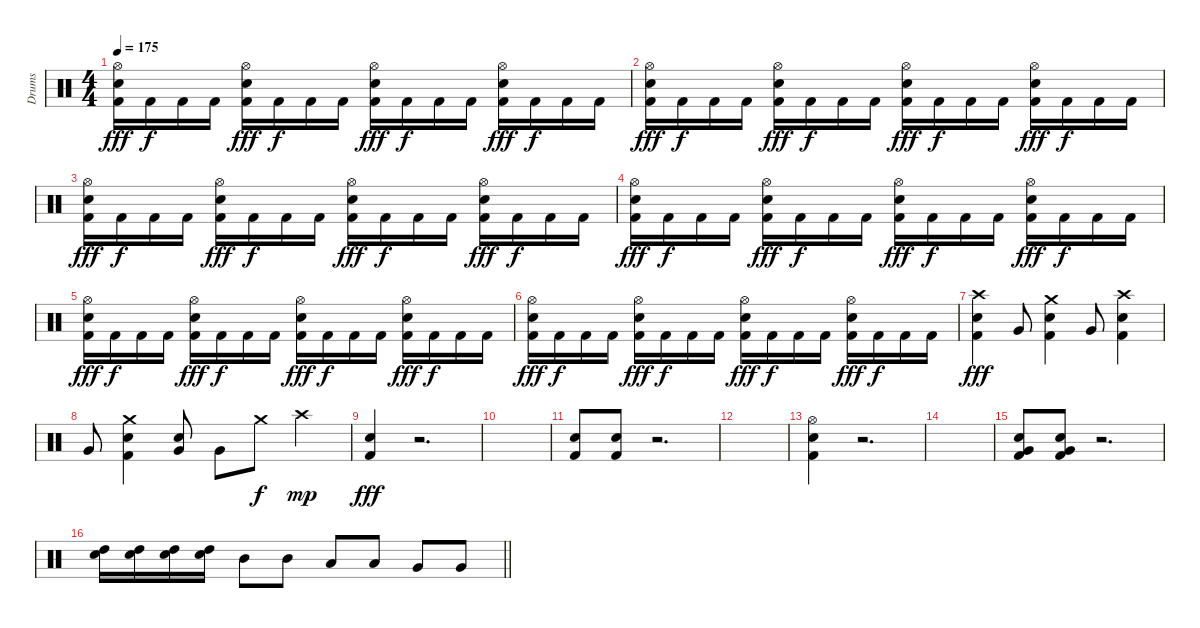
\track ("Drums" "Drums") {instrument percussion}
\staff {score}
\articulation defaults
\ts (4 4)
\tempo 175
\clef neutral
\ks c
("Hi-Hat (open)" "Electric Snare (hit)" "Kick (hit) 2").16{dy fff} "Kick (hit) 2".16{dy f} "Kick (hit) 2".16 "Kick (hit) 2".16 ("Hi-Hat (open)" "Electric Snare (hit)" "Kick (hit) 2").16{dy fff} "Kick (hit) 2".16{dy f} "Kick (hit) 2".16 "Kick (hit) 2".16 ("Hi-Hat (open)" "Electric Snare (hit)" "Kick (hit) 2").16{dy fff} "Kick (hit) 2".16{dy f} "Kick (hit) 2".16 "Kick (hit) 2".16 ("Hi-Hat (open)" "Electric Snare (hit)" "Kick (hit) 2").16{dy fff} "Kick (hit) 2".16{dy f} "Kick (hit) 2".16 "Kick (hit) 2".16 |
("Hi-Hat (open)" "Electric Snare (hit)" "Kick (hit) 2").16{dy fff} "Kick (hit) 2".16{dy f} "Kick (hit) 2".16 "Kick (hit) 2".16 ("Hi-Hat (open)" "Electric Snare (hit)" "Kick (hit) 2").16{dy fff} "Kick (hit) 2".16{dy f} "Kick (hit) 2".16 "Kick (hit) 2".16 ("Hi-Hat (open)" "Electric Snare (hit)" "Kick (hit) 2").16{dy fff} "Kick (hit) 2".16{dy f} "Kick (hit) 2".16 "Kick (hit) 2".16 ("Hi-Hat (open)" "Electric Snare (hit)" "Kick (hit) 2").16{dy fff} "Kick (hit) 2".16{dy f} "Kick (hit) 2".16 "Kick (hit) 2".16 |
("Hi-Hat (open)" "Electric Snare (hit)" "Kick (hit) 2").16{dy fff} "Kick (hit) 2".16{dy f} "Kick (hit) 2".16 "Kick (hit) 2".16 ("Hi-Hat (open)" "Electric Snare (hit)" "Kick (hit) 2").16{dy fff} "Kick (hit) 2".16{dy f} "Kick (hit) 2".16 "Kick (hit) 2".16 ("Hi-Hat (open)" "Electric Snare (hit)" "Kick (hit) 2").16{dy fff} "Kick (hit) 2".16{dy f} "Kick (hit) 2".16 "Kick (hit) 2".16 ("Hi-Hat (open)" "Electric Snare (hit)" "Kick (hit) 2").16{dy fff} "Kick (hit) 2".16{dy f} "Kick (hit) 2".16 "Kick (hit) 2".16 |
("Hi-Hat (open)" "Electric Snare (hit)" "Kick (hit) 2").16{dy fff} "Kick (hit) 2".16{dy f} "Kick (hit) 2".16 "Kick (hit) 2".16 ("Hi-Hat (open)" "Electric Snare (hit)" "Kick (hit) 2").16{dy fff} "Kick (hit) 2".16{dy f} "Kick (hit) 2".16 "Kick (hit) 2".16 ("Hi-Hat (open)" "Electric Snare (hit)" "Kick (hit) 2").16{dy fff} "Kick (hit) 2".16{dy f} "Kick (hit) 2".16 "Kick (hit) 2".16 ("Hi-Hat (open)" "Electric Snare (hit)" "Kick (hit) 2").16{dy fff} "Kick (hit) 2".16{dy f} "Kick (hit) 2".16 "Kick (hit) 2".16 |
("Hi-Hat (open)" "Electric Snare (hit)" "Kick (hit) 2").16{dy fff} "Kick (hit) 2".16{dy f} "Kick (hit) 2".16 "Kick (hit) 2".16 ("Hi-Hat (open)" "Electric Snare (hit)" "Kick (hit) 2").16{dy fff} "Kick (hit) 2".16{dy f} "Kick (hit) 2".16 "Kick (hit) 2".16 ("Hi-Hat (open)" "Electric Snare (hit)" "Kick (hit) 2").16{dy fff} "Kick (hit) 2".16{dy f} "Kick (hit) 2".16 "Kick (hit) 2".16 ("Hi-Hat (open)" "Electric Snare (hit)" "Kick (hit) 2").16{dy fff} "Kick (hit) 2".16{dy f} "Kick (hit) 2".16 "Kick (hit) 2".16 |
("Hi-Hat (open)" "Electric Snare (hit)" "Kick (hit) 2").16{dy fff} "Kick (hit) 2".16{dy f} "Kick (hit) 2".16 "Kick (hit) 2".16 ("Hi-Hat (open)" "Electric Snare (hit)" "Kick (hit) 2").16{dy fff} "Kick (hit) 2".16{dy f} "Kick (hit) 2".16 "Kick (hit) 2".16 ("Hi-Hat (open)" "Electric Snare (hit)" "Kick (hit) 2").16{dy fff} "Kick (hit) 2".16{dy f} "Kick (hit) 2".16 "Kick (hit) 2".16 ("Hi-Hat (open)" "Electric Snare (hit)" "Kick (hit) 2").16{dy fff} "Kick (hit) 2".16{dy f} "Kick (hit) 2".16 "Kick (hit) 2".16 |
("Crash high (hit)" "Electric Snare (hit)" "Kick (hit) 2").4{dy fff} "Very Low Tom (hit)".8 ("Crash medium (hit)" "Electric Snare (hit)" "Kick (hit) 2").4 "Very Low Tom (hit)".8 ("Crash high (hit)" "Electric Snare (hit)" "Kick (hit) 2").4 |
"Very Low Tom (hit)".8 ("Crash medium (hit)" "Electric Snare (hit)" "Kick (hit) 2").4 ("Electric Snare (hit)" "Very Low Tom (hit)").8 "Very Low Tom (hit)".8 "Crash medium (hit)".8{dy f} "Crash high (hit)".4{dy mp} |
("Electric Snare (hit)" "Kick (hit) 2").4{dy fff} r.2{d} |
|
("Electric Snare (hit)" "Kick (hit) 2").8 ("Electric Snare (hit)" "Kick (hit) 2").8 r.2{d} |
|
("Hi-Hat (open)" "Electric Snare (hit)" "Kick (hit) 2").4 r.2{d} |
|
("Electric Snare (hit)" "Very Low Tom (hit)" "Kick (hit) 2").8 ("Electric Snare (hit)" "Very Low Tom (hit)" "Kick (hit) 2").8 r.2{d} |
\barLineRight lightlight
("High Tom (hit)" "Electric Snare (hit)").16 ("High Tom (hit)" "Electric Snare (hit)").16 ("High Tom (hit)" "Electric Snare (hit)").16 ("High Tom (hit)" "Electric Snare (hit)").16 "Mid Tom (hit)".8 "Mid Tom (hit)".8 "Low Tom (hit)".8 "Low Tom (hit)".8 "Very Low Tom (hit)".8 "Very Low Tom (hit)".8
